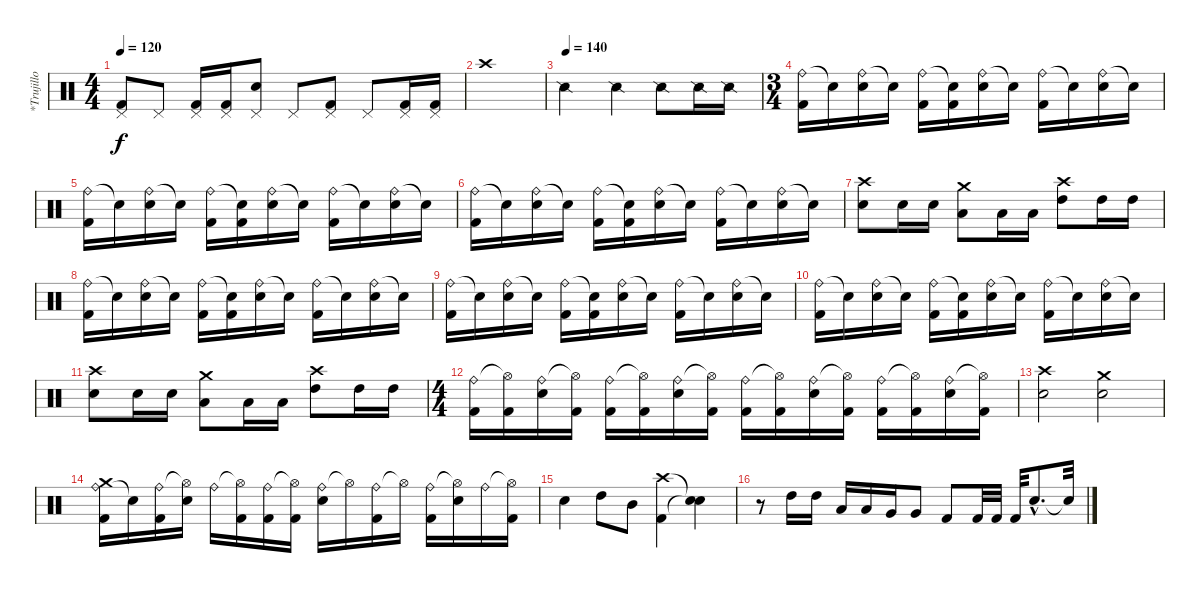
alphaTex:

\track ("*Trujillo" "*Trujillo") {instrument percussion}
\staff {score}
\articulation defaults
\ts (4 4)
\tempo 120
\clef neutral
\ks c
("Pedal Hi-Hat (hit)" "Kick (hit) 2").8{dy f} "Pedal Hi-Hat (hit)".8 ("Pedal Hi-Hat (hit)" "Kick (hit) 2").16 ("Pedal Hi-Hat (hit)"{x} "Kick (hit) 2"{x}).16 ("Pedal Hi-Hat (hit)" "Electric Snare (hit)").8 "Pedal Hi-Hat (hit)".8 ("Pedal Hi-Hat (hit)" "Kick (hit) 2").8 "Pedal Hi-Hat (hit)".8 ("Pedal Hi-Hat (hit)" "Kick (hit) 2").16 ("Pedal Hi-Hat (hit)" "Kick (hit) 2").16 |
"Crash high (hit)".1 |
\tempo (140)
"Snare (side stick) 2".2 "Snare (side stick) 2".4 "Snare (side stick) 2".8 "Snare (side stick) 2".16 "Snare (side stick) 2".16 |
\ts (3 4)
("Ride (bell)" "Kick (hit) 2").16 "Snare (hit)"{t}.16 ("Ride (bell)" "Electric Snare (hit)").16 "Snare (hit)"{t}.16 ("Ride (bell)" "Kick (hit) 2").16 ("Snare (hit)"{t} "Kick (hit) 2").16 ("Ride (bell)" "Electric Snare (hit)").16 "Snare (hit)"{t}.16 ("Ride (bell)" "Kick (hit) 2").16 "Snare (hit)"{t}.16 ("Ride (bell)" "Electric Snare (hit)").16 "Snare (hit)"{t}.16 |
("Ride (bell)" "Kick (hit) 2").16 "Snare (hit)"{t}.16 ("Ride (bell)" "Electric Snare (hit)").16 "Snare (hit)"{t}.16 ("Ride (bell)" "Kick (hit) 2").16 ("Snare (hit)"{t} "Kick (hit) 2").16 ("Ride (bell)" "Electric Snare (hit)").16 "Snare (hit)"{t}.16 ("Ride (bell)" "Kick (hit) 2").16 "Snare (hit)"{t}.16 ("Ride (bell)" "Electric Snare (hit)").16 "Snare (hit)"{t}.16 |
("Ride (bell)" "Kick (hit) 2").16 "Snare (hit)"{t}.16 ("Ride (bell)" "Electric Snare (hit)").16 "Snare (hit)"{t}.16 ("Ride (bell)" "Kick (hit) 2").16 ("Snare (hit)"{t} "Kick (hit) 2").16 ("Ride (bell)" "Electric Snare (hit)").16 "Snare (hit)"{t}.16 ("Ride (bell)" "Kick (hit) 2").16 "Snare (hit)"{t}.16 ("Ride (bell)" "Electric Snare (hit)").16 "Snare (hit)"{t}.16 |
("Crash high (hit)" "Electric Snare (hit)").8 "Electric Snare (hit)".16 "Electric Snare (hit)".16 ("Crash medium (hit)" "Low Tom (hit)").8 "Low Tom (hit)".16 "Low Tom (hit)".16 ("Crash high (hit)" "High Tom (hit)").8 "High Tom (hit)".16 "High Tom (hit)".16 |
("Ride (bell)" "Kick (hit) 2").16 "Snare (hit)"{t}.16 ("Ride (bell)" "Electric Snare (hit)").16 "Snare (hit)"{t}.16 ("Ride (bell)" "Kick (hit) 2").16 ("Snare (hit)"{t} "Kick (hit) 2").16 ("Ride (bell)" "Electric Snare (hit)").16 "Snare (hit)"{t}.16 ("Ride (bell)" "Kick (hit) 2").16 "Snare (hit)"{t}.16 ("Ride (bell)" "Electric Snare (hit)").16 "Snare (hit)"{t}.16 |
("Ride (bell)" "Kick (hit) 2").16 "Snare (hit)"{t}.16 ("Ride (bell)" "Electric Snare (hit)").16 "Snare (hit)"{t}.16 ("Ride (bell)" "Kick (hit) 2").16 ("Snare (hit)"{t} "Kick (hit) 2").16 ("Ride (bell)" "Electric Snare (hit)").16 "Snare (hit)"{t}.16 ("Ride (bell)" "Kick (hit) 2").16 "Snare (hit)"{t}.16 ("Ride (bell)" "Electric Snare (hit)").16 "Snare (hit)"{t}.16 |
("Ride (bell)" "Kick (hit) 2").16 "Snare (hit)"{t}.16 ("Ride (bell)" "Electric Snare (hit)").16 "Snare (hit)"{t}.16 ("Ride (bell)" "Kick (hit) 2").16 ("Snare (hit)"{t} "Kick (hit) 2").16 ("Ride (bell)" "Electric Snare (hit)").16 "Snare (hit)"{t}.16 ("Ride (bell)" "Kick (hit) 2").16 "Snare (hit)"{t}.16 ("Ride (bell)" "Electric Snare (hit)").16 "Snare (hit)"{t}.16 |
("Crash high (hit)" "Electric Snare (hit)").8 "Electric Snare (hit)".16 "Electric Snare (hit)".16 ("Crash medium (hit)" "Low Tom (hit)").8 "Low Tom (hit)".16 "Low Tom (hit)".16 ("Crash high (hit)" "High Tom (hit)").8 "High Tom (hit)".16 "High Tom (hit)".16 |
\ts (4 4)
("Ride (bell)" "Kick (hit) 2").16 ("Hi-Hat (open)"{t} "Kick (hit) 2").16 ("Ride (bell)" "Electric Snare (hit)").16 ("Hi-Hat (open)"{t} "Kick (hit) 2").16 ("Ride (bell)" "Kick (hit) 2").16 ("Hi-Hat (open)"{t} "Kick (hit) 2").16 ("Ride (bell)" "Electric Snare (hit)").16 ("Hi-Hat (open)"{t} "Kick (hit) 2").16 ("Ride (bell)" "Kick (hit) 2").16 ("Hi-Hat (open)"{t} "Kick (hit) 2").16 ("Ride (bell)" "Electric Snare (hit)").16 ("Hi-Hat (open)"{t} "Kick (hit) 2").16 ("Ride (bell)" "Kick (hit) 2").16 ("Hi-Hat (open)"{t} "Kick (hit) 2").16 ("Ride (bell)" "Electric Snare (hit)").16 ("Hi-Hat (open)"{t} "Kick (hit) 2").16 |
("Crash high (hit)" "Electric Snare (hit)").2 ("Crash medium (hit)" "Snare (hit) 2").2 |
("Ride (bell)" "Crash medium (hit)"{x} "Kick (hit) 2").16 "Snare (hit)"{t}.16 ("Ride (bell)" "Kick (hit) 2").16 ("Hi-Hat (open)"{t} "Electric Snare (hit)").16 "Ride (bell)".16 ("Hi-Hat (open)"{t} "Kick (hit) 2").16 ("Ride (bell)" "Kick (hit) 2"{x}).16 ("Hi-Hat (open)"{t} "Kick (hit) 2").16 ("Ride (bell)" "Electric Snare (hit)").16 "Hi-Hat (open)"{t}.16 ("Ride (bell)" "Kick (hit) 2").16 "Hi-Hat (open)"{t}.16 ("Ride (bell)" "Kick (hit) 2").16 ("Hi-Hat (open)"{t} "Electric Snare (hit)").16 "Ride (bell)".16 ("Hi-Hat (open)"{t} "Kick (hit) 2").16 |
"Electric Snare (hit)".4 "High Tom (hit)".8 "Mid Tom (hit)".8 ("Crash high (hit)" "Kick (hit) 2").4 ("Electric Snare (hit)"{t} "Snare (hit)"{t}).4 |
r.8 "High Tom (hit)".16 "High Tom (hit)".16 "Low Tom (hit)".16 "Low Tom (hit)".16 "Very Low Tom (hit)".16 "Very Low Tom (hit)".8 "Kick (hit) 2".8 "Kick (hit) 2".32 "Kick (hit) 2".32 "Kick (hit) 2".32 "Electric Snare (hit)"{hac}.8{d} "Snare (hit)"{t}.32
